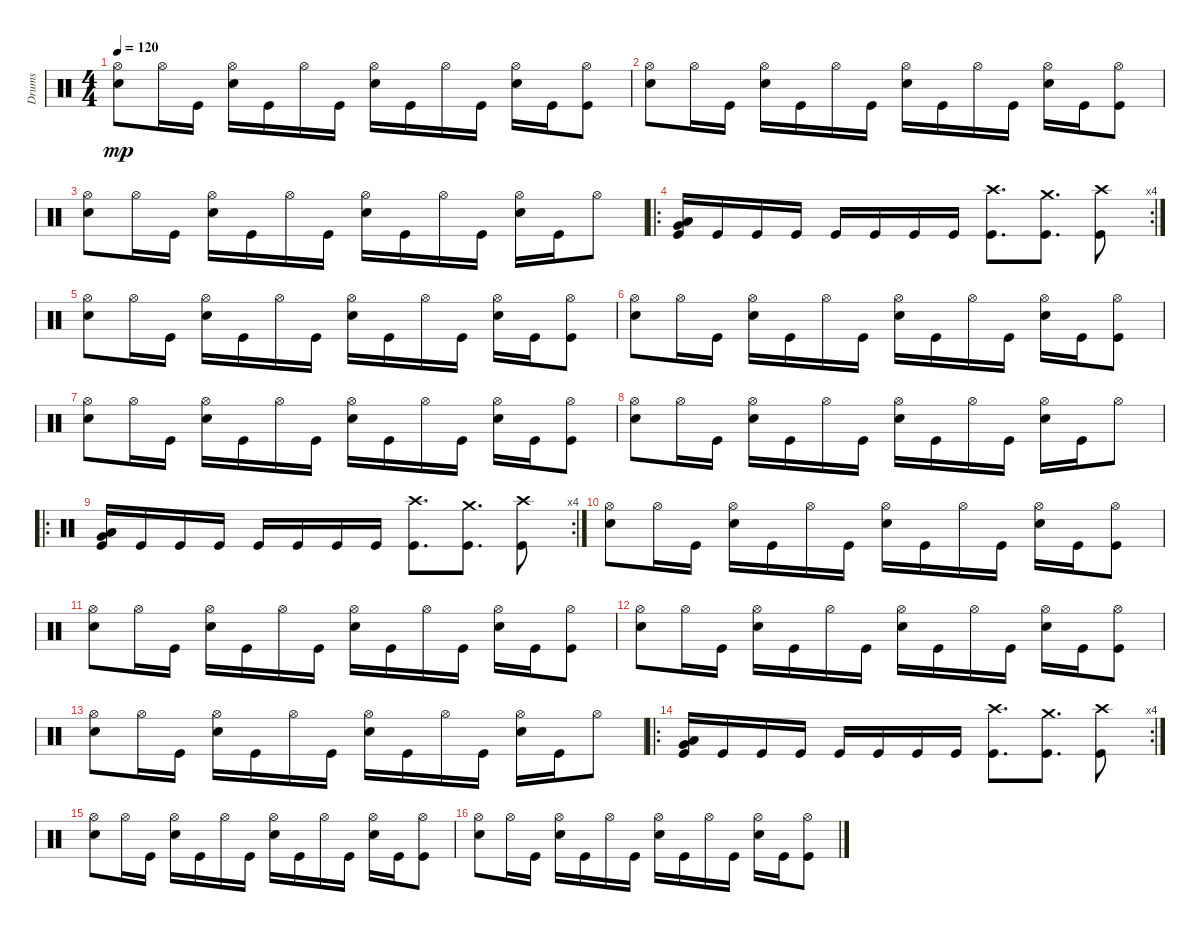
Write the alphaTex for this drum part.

\track ("Drums" "Drums") {instrument percussion}
\staff {score}
\articulation defaults
\ts (4 4)
\tempo 120
\clef neutral
\ks c
("Hi-Hat (open)" "Snare (hit) 2").8{dy mp} "Hi-Hat (open)".16 "Kick (hit)".16 ("Hi-Hat (open)" "Snare (hit) 2").16 "Kick (hit)".16 "Hi-Hat (open)".16 "Kick (hit)".16 ("Hi-Hat (open)" "Snare (hit) 2").16 "Kick (hit)".16 "Hi-Hat (open)".16 "Kick (hit)".16 ("Hi-Hat (open)" "Snare (hit) 2").16 "Kick (hit)".16 ("Hi-Hat (open)" "Kick (hit)").8 |
("Hi-Hat (open)" "Snare (hit) 2").8 "Hi-Hat (open)".16 "Kick (hit)".16 ("Hi-Hat (open)" "Snare (hit) 2").16 "Kick (hit)".16 "Hi-Hat (open)".16 "Kick (hit)".16 ("Hi-Hat (open)" "Snare (hit) 2").16 "Kick (hit)".16 "Hi-Hat (open)".16 "Kick (hit)".16 ("Hi-Hat (open)" "Snare (hit) 2").16 "Kick (hit)".16 ("Hi-Hat (open)" "Kick (hit)").8 |
("Hi-Hat (open)" "Snare (hit) 2").8 "Hi-Hat (open)".16 "Kick (hit)".16 ("Hi-Hat (open)" "Snare (hit) 2").16 "Kick (hit)".16 "Hi-Hat (open)".16 "Kick (hit)".16 ("Hi-Hat (open)" "Snare (hit) 2").16 "Kick (hit)".16 "Hi-Hat (open)".16 "Kick (hit)".16 ("Hi-Hat (open)" "Snare (hit) 2").16 "Kick (hit)".16 "Hi-Hat (open)".8 |
\ro
\rc 4
("Very Low Tom (hit)" "Low Floor Tom (hit)" "Kick (hit)").16 "Kick (hit)".16 "Kick (hit)".16 "Kick (hit)".16 "Kick (hit)".16 "Kick (hit)".16 "Kick (hit)".16 "Kick (hit)".16 ("Crash high (hit)" "Kick (hit)").8{d} ("Crash medium (hit)" "Kick (hit)").8{d} ("Crash high (hit)" "Kick (hit)").8 |
("Hi-Hat (open)" "Snare (hit) 2").8 "Hi-Hat (open)".16 "Kick (hit)".16 ("Hi-Hat (open)" "Snare (hit) 2").16 "Kick (hit)".16 "Hi-Hat (open)".16 "Kick (hit)".16 ("Hi-Hat (open)" "Snare (hit) 2").16 "Kick (hit)".16 "Hi-Hat (open)".16 "Kick (hit)".16 ("Hi-Hat (open)" "Snare (hit) 2").16 "Kick (hit)".16 ("Hi-Hat (open)" "Kick (hit)").8 |
("Hi-Hat (open)" "Snare (hit) 2").8 "Hi-Hat (open)".16 "Kick (hit)".16 ("Hi-Hat (open)" "Snare (hit) 2").16 "Kick (hit)".16 "Hi-Hat (open)".16 "Kick (hit)".16 ("Hi-Hat (open)" "Snare (hit) 2").16 "Kick (hit)".16 "Hi-Hat (open)".16 "Kick (hit)".16 ("Hi-Hat (open)" "Snare (hit) 2").16 "Kick (hit)".16 ("Hi-Hat (open)" "Kick (hit)").8 |
("Hi-Hat (open)" "Snare (hit) 2").8 "Hi-Hat (open)".16 "Kick (hit)".16 ("Hi-Hat (open)" "Snare (hit) 2").16 "Kick (hit)".16 "Hi-Hat (open)".16 "Kick (hit)".16 ("Hi-Hat (open)" "Snare (hit) 2").16 "Kick (hit)".16 "Hi-Hat (open)".16 "Kick (hit)".16 ("Hi-Hat (open)" "Snare (hit) 2").16 "Kick (hit)".16 ("Hi-Hat (open)" "Kick (hit)").8 |
("Hi-Hat (open)" "Snare (hit) 2").8 "Hi-Hat (open)".16 "Kick (hit)".16 ("Hi-Hat (open)" "Snare (hit) 2").16 "Kick (hit)".16 "Hi-Hat (open)".16 "Kick (hit)".16 ("Hi-Hat (open)" "Snare (hit) 2").16 "Kick (hit)".16 "Hi-Hat (open)".16 "Kick (hit)".16 ("Hi-Hat (open)" "Snare (hit) 2").16 "Kick (hit)".16 "Hi-Hat (open)".8 |
\ro
\rc 4
("Very Low Tom (hit)" "Low Floor Tom (hit)" "Kick (hit)").16 "Kick (hit)".16 "Kick (hit)".16 "Kick (hit)".16 "Kick (hit)".16 "Kick (hit)".16 "Kick (hit)".16 "Kick (hit)".16 ("Crash high (hit)" "Kick (hit)").8{d} ("Crash medium (hit)" "Kick (hit)").8{d} ("Crash high (hit)" "Kick (hit)").8 |
("Hi-Hat (open)" "Snare (hit) 2").8 "Hi-Hat (open)".16 "Kick (hit)".16 ("Hi-Hat (open)" "Snare (hit) 2").16 "Kick (hit)".16 "Hi-Hat (open)".16 "Kick (hit)".16 ("Hi-Hat (open)" "Snare (hit) 2").16 "Kick (hit)".16 "Hi-Hat (open)".16 "Kick (hit)".16 ("Hi-Hat (open)" "Snare (hit) 2").16 "Kick (hit)".16 ("Hi-Hat (open)" "Kick (hit)").8 |
("Hi-Hat (open)" "Snare (hit) 2").8 "Hi-Hat (open)".16 "Kick (hit)".16 ("Hi-Hat (open)" "Snare (hit) 2").16 "Kick (hit)".16 "Hi-Hat (open)".16 "Kick (hit)".16 ("Hi-Hat (open)" "Snare (hit) 2").16 "Kick (hit)".16 "Hi-Hat (open)".16 "Kick (hit)".16 ("Hi-Hat (open)" "Snare (hit) 2").16 "Kick (hit)".16 ("Hi-Hat (open)" "Kick (hit)").8 |
("Hi-Hat (open)" "Snare (hit) 2").8 "Hi-Hat (open)".16 "Kick (hit)".16 ("Hi-Hat (open)" "Snare (hit) 2").16 "Kick (hit)".16 "Hi-Hat (open)".16 "Kick (hit)".16 ("Hi-Hat (open)" "Snare (hit) 2").16 "Kick (hit)".16 "Hi-Hat (open)".16 "Kick (hit)".16 ("Hi-Hat (open)" "Snare (hit) 2").16 "Kick (hit)".16 ("Hi-Hat (open)" "Kick (hit)").8 |
("Hi-Hat (open)" "Snare (hit) 2").8 "Hi-Hat (open)".16 "Kick (hit)".16 ("Hi-Hat (open)" "Snare (hit) 2").16 "Kick (hit)".16 "Hi-Hat (open)".16 "Kick (hit)".16 ("Hi-Hat (open)" "Snare (hit) 2").16 "Kick (hit)".16 "Hi-Hat (open)".16 "Kick (hit)".16 ("Hi-Hat (open)" "Snare (hit) 2").16 "Kick (hit)".16 "Hi-Hat (open)".8 |
\ro
\rc 4
("Very Low Tom (hit)" "Low Floor Tom (hit)" "Kick (hit)").16 "Kick (hit)".16 "Kick (hit)".16 "Kick (hit)".16 "Kick (hit)".16 "Kick (hit)".16 "Kick (hit)".16 "Kick (hit)".16 ("Crash high (hit)" "Kick (hit)").8{d} ("Crash medium (hit)" "Kick (hit)").8{d} ("Crash high (hit)" "Kick (hit)").8 |
("Hi-Hat (open)" "Snare (hit) 2").8 "Hi-Hat (open)".16 "Kick (hit)".16 ("Hi-Hat (open)" "Snare (hit) 2").16 "Kick (hit)".16 "Hi-Hat (open)".16 "Kick (hit)".16 ("Hi-Hat (open)" "Snare (hit) 2").16 "Kick (hit)".16 "Hi-Hat (open)".16 "Kick (hit)".16 ("Hi-Hat (open)" "Snare (hit) 2").16 "Kick (hit)".16 ("Hi-Hat (open)" "Kick (hit)").8 |
("Hi-Hat (open)" "Snare (hit) 2").8 "Hi-Hat (open)".16 "Kick (hit)".16 ("Hi-Hat (open)" "Snare (hit) 2").16 "Kick (hit)".16 "Hi-Hat (open)".16 "Kick (hit)".16 ("Hi-Hat (open)" "Snare (hit) 2").16 "Kick (hit)".16 "Hi-Hat (open)".16 "Kick (hit)".16 ("Hi-Hat (open)" "Snare (hit) 2").16 "Kick (hit)".16 ("Hi-Hat (open)" "Kick (hit)").8
